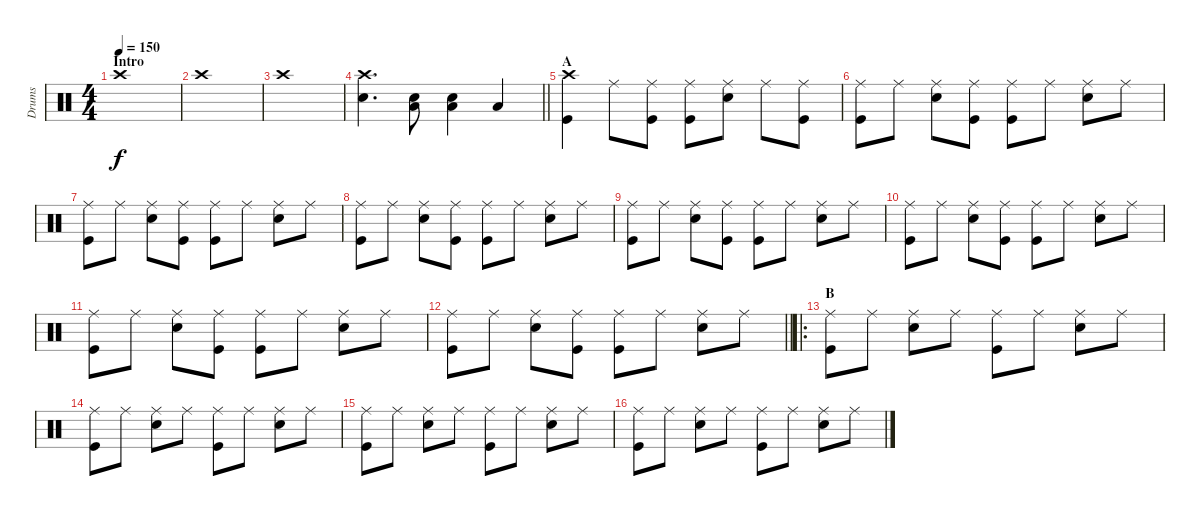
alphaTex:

\track ("Drums" "Drums") {instrument percussion}
\staff {score}
\articulation defaults
\ts (4 4)
\section ("" "Intro")
\tempo 150
\clef neutral
\ks c "Crash high (hit)".1{dy f}
|
"Crash high (hit)".1 |
"Crash high (hit)".1 |
\barLineRight lightlight
("Crash high (hit)" "Snare (hit) 2").4{d} ("Snare (hit) 2" "Low Tom (hit)").8 ("Snare (hit) 2" "Low Tom (hit)").4 "Low Tom (hit)".4 |
\section ("" "A")
("Crash high (hit)" "Kick (hit)").4 "Ride (middle)".8 ("Ride (middle)" "Kick (hit)").8 ("Ride (middle)" "Kick (hit)").8 ("Ride (middle)" "Snare (hit) 2").8 "Ride (middle)".8 ("Ride (middle)" "Kick (hit)").8 |
("Ride (middle)" "Kick (hit)").8 "Ride (middle)".8 ("Ride (middle)" "Snare (hit) 2").8 ("Ride (middle)" "Kick (hit)").8 ("Ride (middle)" "Kick (hit)").8 "Ride (middle)".8 ("Ride (middle)" "Snare (hit) 2").8 "Ride (middle)".8 |
("Ride (middle)" "Kick (hit)").8 "Ride (middle)".8 ("Ride (middle)" "Snare (hit) 2").8 ("Ride (middle)" "Kick (hit)").8 ("Ride (middle)" "Kick (hit)").8 "Ride (middle)".8 ("Ride (middle)" "Snare (hit) 2").8 "Ride (middle)".8 |
("Ride (middle)" "Kick (hit)").8 "Ride (middle)".8 ("Ride (middle)" "Snare (hit) 2").8 ("Ride (middle)" "Kick (hit)").8 ("Ride (middle)" "Kick (hit)").8 "Ride (middle)".8 ("Ride (middle)" "Snare (hit) 2").8 "Ride (middle)".8 |
("Ride (middle)" "Kick (hit)").8 "Ride (middle)".8 ("Ride (middle)" "Snare (hit) 2").8 ("Ride (middle)" "Kick (hit)").8 ("Ride (middle)" "Kick (hit)").8 "Ride (middle)".8 ("Ride (middle)" "Snare (hit) 2").8 "Ride (middle)".8 |
("Ride (middle)" "Kick (hit)").8 "Ride (middle)".8 ("Ride (middle)" "Snare (hit) 2").8 ("Ride (middle)" "Kick (hit)").8 ("Ride (middle)" "Kick (hit)").8 "Ride (middle)".8 ("Ride (middle)" "Snare (hit) 2").8 "Ride (middle)".8 |
("Ride (middle)" "Kick (hit)").8 "Ride (middle)".8 ("Ride (middle)" "Snare (hit) 2").8 ("Ride (middle)" "Kick (hit)").8 ("Ride (middle)" "Kick (hit)").8 "Ride (middle)".8 ("Ride (middle)" "Snare (hit) 2").8 "Ride (middle)".8 |
\barLineRight lightlight
("Ride (middle)" "Kick (hit)").8 "Ride (middle)".8 ("Ride (middle)" "Snare (hit) 2").8 ("Ride (middle)" "Kick (hit)").8 ("Ride (middle)" "Kick (hit)").8 "Ride (middle)".8 ("Ride (middle)" "Snare (hit) 2").8 "Ride (middle)".8 |
\ro
\section ("" "B")
("Ride (middle)" "Kick (hit)").8 "Ride (middle)".8 ("Ride (middle)" "Snare (hit) 2").8 "Ride (middle)".8 ("Ride (middle)" "Kick (hit)").8 "Ride (middle)".8 ("Ride (middle)" "Snare (hit) 2").8 "Ride (middle)".8 |
("Ride (middle)" "Kick (hit)").8 "Ride (middle)".8 ("Ride (middle)" "Snare (hit) 2").8 "Ride (middle)".8 ("Ride (middle)" "Kick (hit)").8 "Ride (middle)".8 ("Ride (middle)" "Snare (hit) 2").8 "Ride (middle)".8 |
("Ride (middle)" "Kick (hit)").8 "Ride (middle)".8 ("Ride (middle)" "Snare (hit) 2").8 "Ride (middle)".8 ("Ride (middle)" "Kick (hit)").8 "Ride (middle)".8 ("Ride (middle)" "Snare (hit) 2").8 "Ride (middle)".8 |
("Ride (middle)" "Kick (hit)").8 "Ride (middle)".8 ("Ride (middle)" "Snare (hit) 2").8 "Ride (middle)".8 ("Ride (middle)" "Kick (hit)").8 "Ride (middle)".8 ("Ride (middle)" "Snare (hit) 2").8 "Ride (middle)".8
